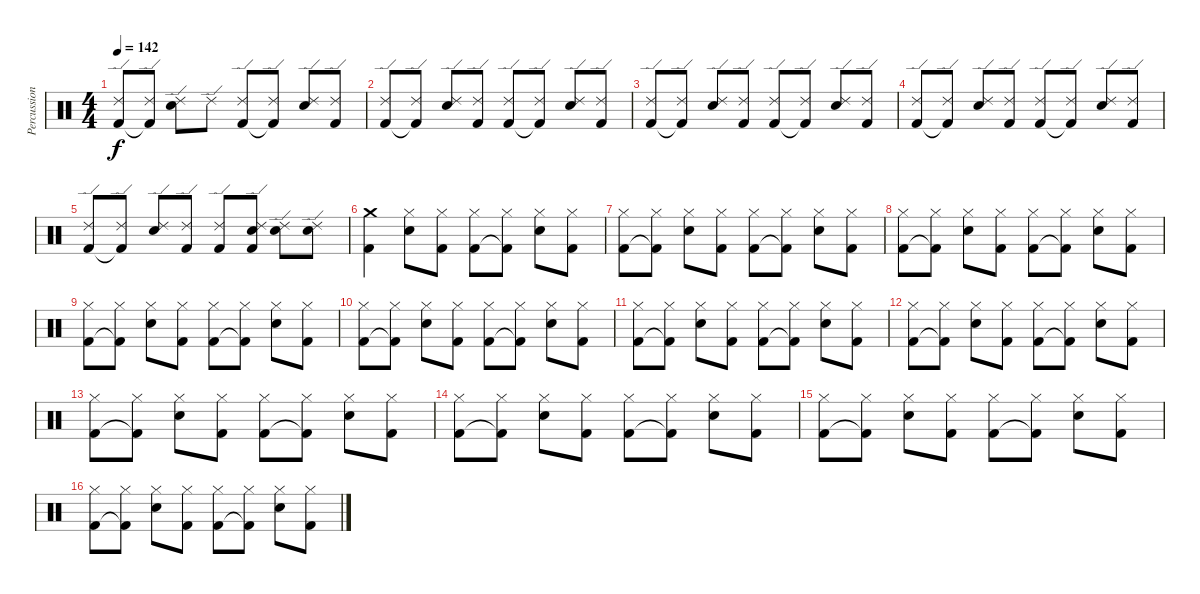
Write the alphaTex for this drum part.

\track ("Percussion" "Percussion") {instrument percussion}
\staff {score}
\articulation defaults
\ts (4 4)
\tempo 142
\clef neutral
\ks c
("Ride (edge) 2" "Kick (hit) 2").8{dy f} ("Ride (edge) 2" "Kick (hit) 2"{t}).8 ("Ride (edge) 2" "Snare (hit) 2").8 "Ride (edge) 2".8 ("Ride (edge) 2" "Kick (hit) 2").8 ("Ride (edge) 2" "Kick (hit) 2"{t}).8 ("Ride (edge) 2" "Snare (hit) 2").8 ("Ride (edge) 2" "Kick (hit) 2").8 |
("Ride (edge) 2" "Kick (hit) 2").8 ("Ride (edge) 2" "Kick (hit) 2"{t}).8 ("Ride (edge) 2" "Snare (hit) 2").8 ("Ride (edge) 2" "Kick (hit) 2").8 ("Ride (edge) 2" "Kick (hit) 2").8 ("Ride (edge) 2" "Kick (hit) 2"{t}).8 ("Ride (edge) 2" "Snare (hit) 2").8 ("Ride (edge) 2" "Kick (hit) 2").8 |
("Ride (edge) 2" "Kick (hit) 2").8 ("Ride (edge) 2" "Kick (hit) 2"{t}).8 ("Ride (edge) 2" "Snare (hit) 2").8 ("Ride (edge) 2" "Kick (hit) 2").8 ("Ride (edge) 2" "Kick (hit) 2").8 ("Ride (edge) 2" "Kick (hit) 2"{t}).8 ("Ride (edge) 2" "Snare (hit) 2").8 ("Ride (edge) 2" "Kick (hit) 2").8 |
("Ride (edge) 2" "Kick (hit) 2").8 ("Ride (edge) 2" "Kick (hit) 2"{t}).8 ("Ride (edge) 2" "Snare (hit) 2").8 ("Ride (edge) 2" "Kick (hit) 2").8 ("Ride (edge) 2" "Kick (hit) 2").8 ("Ride (edge) 2" "Kick (hit) 2"{t}).8 ("Ride (edge) 2" "Snare (hit) 2").8 ("Ride (edge) 2" "Kick (hit) 2").8 |
("Ride (edge) 2" "Kick (hit) 2").8 ("Ride (edge) 2" "Kick (hit) 2"{t}).8 ("Ride (edge) 2" "Snare (hit) 2").8 ("Ride (edge) 2" "Kick (hit) 2").8 ("Ride (edge) 2" "Kick (hit) 2").8 ("Ride (edge) 2" "Snare (hit) 2" "Kick (hit) 2").8 ("Ride (edge) 2" "Snare (hit) 2").8 ("Ride (edge) 2" "Snare (hit) 2").8 |
("Crash medium (hit)" "Kick (hit) 2").4 ("Hi-Hat (closed)" "Snare (hit) 2").8 ("Hi-Hat (closed)" "Kick (hit) 2").8 ("Hi-Hat (closed)" "Kick (hit) 2").8 ("Hi-Hat (closed)" "Kick (hit) 2"{t}).8 ("Hi-Hat (closed)" "Snare (hit) 2").8 ("Hi-Hat (closed)" "Kick (hit) 2").8 |
("Hi-Hat (closed)" "Kick (hit) 2").8 ("Hi-Hat (closed)" "Kick (hit) 2"{t}).8 ("Hi-Hat (closed)" "Snare (hit) 2").8 ("Hi-Hat (closed)" "Kick (hit) 2").8 ("Hi-Hat (closed)" "Kick (hit) 2").8 ("Hi-Hat (closed)" "Kick (hit) 2"{t}).8 ("Hi-Hat (closed)" "Snare (hit) 2").8 ("Hi-Hat (closed)" "Kick (hit) 2").8 |
("Hi-Hat (closed)" "Kick (hit) 2").8 ("Hi-Hat (closed)" "Kick (hit) 2"{t}).8 ("Hi-Hat (closed)" "Snare (hit) 2").8 ("Hi-Hat (closed)" "Kick (hit) 2").8 ("Hi-Hat (closed)" "Kick (hit) 2").8 ("Hi-Hat (closed)" "Kick (hit) 2"{t}).8 ("Hi-Hat (closed)" "Snare (hit) 2").8 ("Hi-Hat (closed)" "Kick (hit) 2").8 |
("Hi-Hat (closed)" "Kick (hit) 2").8 ("Hi-Hat (closed)" "Kick (hit) 2"{t}).8 ("Hi-Hat (closed)" "Snare (hit) 2").8 ("Hi-Hat (closed)" "Kick (hit) 2").8 ("Hi-Hat (closed)" "Kick (hit) 2").8 ("Hi-Hat (closed)" "Kick (hit) 2"{t}).8 ("Hi-Hat (closed)" "Snare (hit) 2").8 ("Hi-Hat (closed)" "Kick (hit) 2").8 |
("Hi-Hat (closed)" "Kick (hit) 2").8 ("Hi-Hat (closed)" "Kick (hit) 2"{t}).8 ("Hi-Hat (closed)" "Snare (hit) 2").8 ("Hi-Hat (closed)" "Kick (hit) 2").8 ("Hi-Hat (closed)" "Kick (hit) 2").8 ("Hi-Hat (closed)" "Kick (hit) 2"{t}).8 ("Hi-Hat (closed)" "Snare (hit) 2").8 ("Hi-Hat (closed)" "Kick (hit) 2").8 |
("Hi-Hat (closed)" "Kick (hit) 2").8 ("Hi-Hat (closed)" "Kick (hit) 2"{t}).8 ("Hi-Hat (closed)" "Snare (hit) 2").8 ("Hi-Hat (closed)" "Kick (hit) 2").8 ("Hi-Hat (closed)" "Kick (hit) 2").8 ("Hi-Hat (closed)" "Kick (hit) 2"{t}).8 ("Hi-Hat (closed)" "Snare (hit) 2").8 ("Hi-Hat (closed)" "Kick (hit) 2").8 |
("Hi-Hat (closed)" "Kick (hit) 2").8 ("Hi-Hat (closed)" "Kick (hit) 2"{t}).8 ("Hi-Hat (closed)" "Snare (hit) 2").8 ("Hi-Hat (closed)" "Kick (hit) 2").8 ("Hi-Hat (closed)" "Kick (hit) 2").8 ("Hi-Hat (closed)" "Kick (hit) 2"{t}).8 ("Hi-Hat (closed)" "Snare (hit) 2").8 ("Hi-Hat (closed)" "Kick (hit) 2").8 |
("Hi-Hat (closed)" "Kick (hit) 2").8 ("Hi-Hat (closed)" "Kick (hit) 2"{t}).8 ("Hi-Hat (closed)" "Snare (hit) 2").8 ("Hi-Hat (closed)" "Kick (hit) 2").8 ("Hi-Hat (closed)" "Kick (hit) 2").8 ("Hi-Hat (closed)" "Kick (hit) 2"{t}).8 ("Hi-Hat (closed)" "Snare (hit) 2").8 ("Hi-Hat (closed)" "Kick (hit) 2").8 |
("Hi-Hat (closed)" "Kick (hit) 2").8 ("Hi-Hat (closed)" "Kick (hit) 2"{t}).8 ("Hi-Hat (closed)" "Snare (hit) 2").8 ("Hi-Hat (closed)" "Kick (hit) 2").8 ("Hi-Hat (closed)" "Kick (hit) 2").8 ("Hi-Hat (closed)" "Kick (hit) 2"{t}).8 ("Hi-Hat (closed)" "Snare (hit) 2").8 ("Hi-Hat (closed)" "Kick (hit) 2").8 |
("Hi-Hat (closed)" "Kick (hit) 2").8 ("Hi-Hat (closed)" "Kick (hit) 2"{t}).8 ("Hi-Hat (closed)" "Snare (hit) 2").8 ("Hi-Hat (closed)" "Kick (hit) 2").8 ("Hi-Hat (closed)" "Kick (hit) 2").8 ("Hi-Hat (closed)" "Kick (hit) 2"{t}).8 ("Hi-Hat (closed)" "Snare (hit) 2").8 ("Hi-Hat (closed)" "Kick (hit) 2").8 |
("Hi-Hat (closed)" "Kick (hit) 2").8 ("Hi-Hat (closed)" "Kick (hit) 2"{t}).8 ("Hi-Hat (closed)" "Snare (hit) 2").8 ("Hi-Hat (closed)" "Kick (hit) 2").8 ("Hi-Hat (closed)" "Kick (hit) 2").8 ("Hi-Hat (closed)" "Kick (hit) 2"{t}).8 ("Hi-Hat (closed)" "Snare (hit) 2").8 ("Hi-Hat (closed)" "Kick (hit) 2").8
